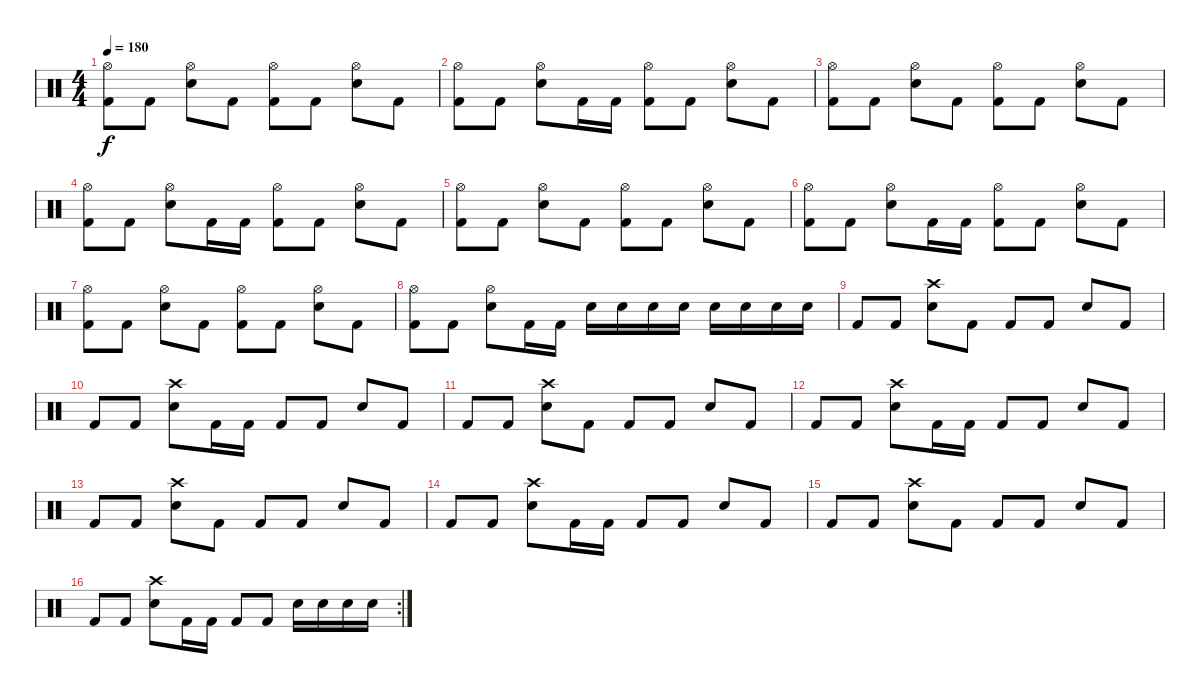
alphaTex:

\track "" {instrument percussion}
\staff {score}
\articulation defaults
\ts (4 4)
\tempo 180
\clef neutral
\ks c
("Hi-Hat (open)" "Kick (hit) 2").8{dy f} "Kick (hit) 2".8 ("Hi-Hat (open)" "Snare (hit) 2").8 "Kick (hit) 2".8 ("Hi-Hat (open)" "Kick (hit) 2").8 "Kick (hit) 2".8 ("Hi-Hat (open)" "Snare (hit) 2").8 "Kick (hit) 2".8 |
("Hi-Hat (open)" "Kick (hit) 2").8 "Kick (hit) 2".8 ("Hi-Hat (open)" "Snare (hit) 2").8 "Kick (hit) 2".16 "Kick (hit) 2".16 ("Hi-Hat (open)" "Kick (hit) 2").8 "Kick (hit) 2".8 ("Hi-Hat (open)" "Snare (hit) 2").8 "Kick (hit) 2".8 |
("Hi-Hat (open)" "Kick (hit) 2").8 "Kick (hit) 2".8 ("Hi-Hat (open)" "Snare (hit) 2").8 "Kick (hit) 2".8 ("Hi-Hat (open)" "Kick (hit) 2").8 "Kick (hit) 2".8 ("Hi-Hat (open)" "Snare (hit) 2").8 "Kick (hit) 2".8 |
("Hi-Hat (open)" "Kick (hit) 2").8 "Kick (hit) 2".8 ("Hi-Hat (open)" "Snare (hit) 2").8 "Kick (hit) 2".16 "Kick (hit) 2".16 ("Hi-Hat (open)" "Kick (hit) 2").8 "Kick (hit) 2".8 ("Hi-Hat (open)" "Snare (hit) 2").8 "Kick (hit) 2".8 |
("Hi-Hat (open)" "Kick (hit) 2").8 "Kick (hit) 2".8 ("Hi-Hat (open)" "Snare (hit) 2").8 "Kick (hit) 2".8 ("Hi-Hat (open)" "Kick (hit) 2").8 "Kick (hit) 2".8 ("Hi-Hat (open)" "Snare (hit) 2").8 "Kick (hit) 2".8 |
("Hi-Hat (open)" "Kick (hit) 2").8 "Kick (hit) 2".8 ("Hi-Hat (open)" "Snare (hit) 2").8 "Kick (hit) 2".16 "Kick (hit) 2".16 ("Hi-Hat (open)" "Kick (hit) 2").8 "Kick (hit) 2".8 ("Hi-Hat (open)" "Snare (hit) 2").8 "Kick (hit) 2".8 |
("Hi-Hat (open)" "Kick (hit) 2").8 "Kick (hit) 2".8 ("Hi-Hat (open)" "Snare (hit) 2").8 "Kick (hit) 2".8 ("Hi-Hat (open)" "Kick (hit) 2").8 "Kick (hit) 2".8 ("Hi-Hat (open)" "Snare (hit) 2").8 "Kick (hit) 2".8 |
("Hi-Hat (open)" "Kick (hit) 2").8 "Kick (hit) 2".8 ("Hi-Hat (open)" "Snare (hit) 2").8 "Kick (hit) 2".16 "Kick (hit) 2".16 "Snare (hit) 2".16 "Snare (hit) 2".16 "Snare (hit) 2".16 "Snare (hit) 2".16 "Snare (hit) 2".16 "Snare (hit) 2".16 "Snare (hit) 2".16 "Snare (hit) 2".16 |
\section ("" "")
"Kick (hit) 2".8{txt ""} "Kick (hit) 2".8 ("Crash high (hit)" "Snare (hit) 2").8 "Kick (hit) 2".8 "Kick (hit) 2".8 "Kick (hit) 2".8 "Snare (hit) 2".8 "Kick (hit) 2".8 |
"Kick (hit) 2".8 "Kick (hit) 2".8 ("Crash high (hit)" "Snare (hit) 2").8 "Kick (hit) 2".16 "Kick (hit) 2".16 "Kick (hit) 2".8 "Kick (hit) 2".8 "Snare (hit) 2".8 "Kick (hit) 2".8 |
"Kick (hit) 2".8 "Kick (hit) 2".8 ("Crash high (hit)" "Snare (hit) 2").8 "Kick (hit) 2".8 "Kick (hit) 2".8 "Kick (hit) 2".8 "Snare (hit) 2".8 "Kick (hit) 2".8 |
"Kick (hit) 2".8 "Kick (hit) 2".8 ("Crash high (hit)" "Snare (hit) 2").8 "Kick (hit) 2".16 "Kick (hit) 2".16 "Kick (hit) 2".8 "Kick (hit) 2".8 "Snare (hit) 2".8 "Kick (hit) 2".8 |
"Kick (hit) 2".8 "Kick (hit) 2".8 ("Crash high (hit)" "Snare (hit) 2").8 "Kick (hit) 2".8 "Kick (hit) 2".8 "Kick (hit) 2".8 "Snare (hit) 2".8 "Kick (hit) 2".8 |
"Kick (hit) 2".8 "Kick (hit) 2".8 ("Crash high (hit)" "Snare (hit) 2").8 "Kick (hit) 2".16 "Kick (hit) 2".16 "Kick (hit) 2".8 "Kick (hit) 2".8 "Snare (hit) 2".8 "Kick (hit) 2".8 |
"Kick (hit) 2".8 "Kick (hit) 2".8 ("Crash high (hit)" "Snare (hit) 2").8 "Kick (hit) 2".8 "Kick (hit) 2".8 "Kick (hit) 2".8 "Snare (hit) 2".8 "Kick (hit) 2".8 |
\rc 2 "Kick (hit) 2".8 "Kick (hit) 2".8
("Crash high (hit)" "Snare (hit) 2").8 "Kick (hit) 2".16 "Kick (hit) 2".16 "Kick (hit) 2".8 "Kick (hit) 2".8 "Snare (hit) 2".16 "Snare (hit) 2".16 "Snare (hit) 2".16 "Snare (hit) 2".16
